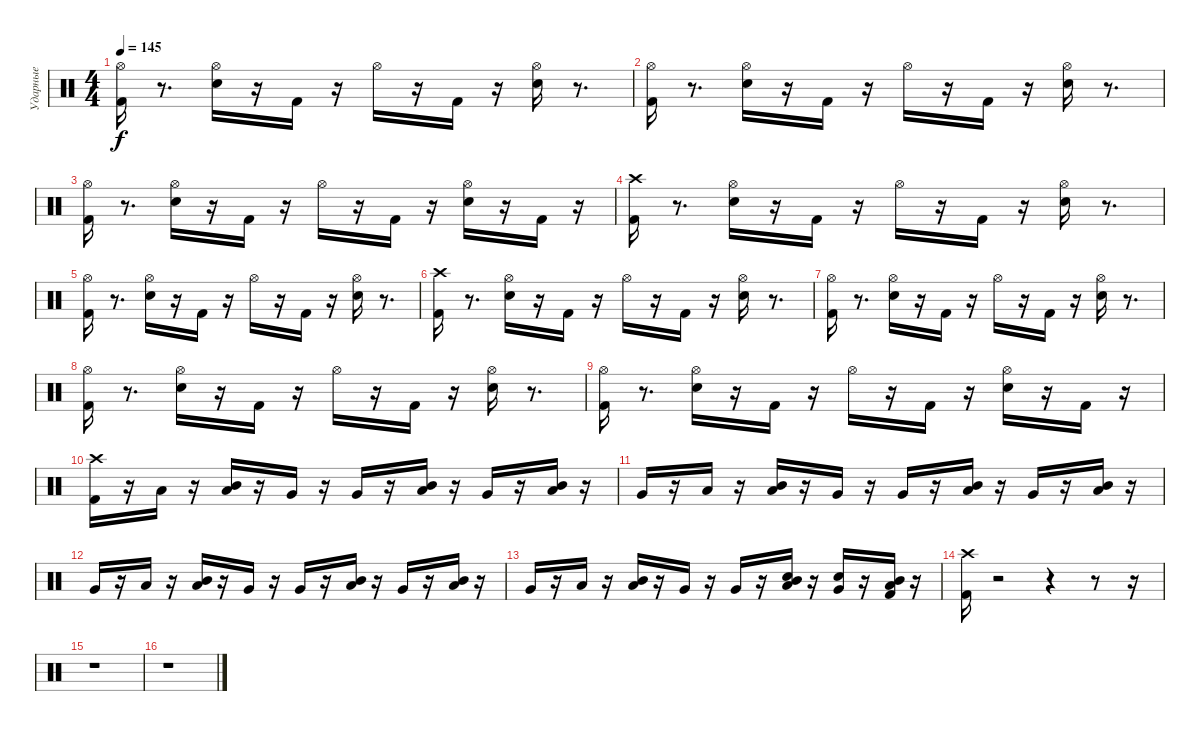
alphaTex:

\track ("Ударные" "Ударные") {instrument percussion}
\staff {score}
\articulation defaults
\ts (4 4)
\tempo 145
\clef neutral
\ks c
("Hi-Hat (open)" "Kick (hit) 2").16{dy f} r.8{d} ("Electric Snare (hit)" "Hi-Hat (open)").16 r.16 "Kick (hit) 2".16 r.16 "Hi-Hat (open)".16 r.16 "Kick (hit) 2".16 r.16 ("Electric Snare (hit)" "Hi-Hat (open)").16 r.8{d} |
("Hi-Hat (open)" "Kick (hit) 2").16 r.8{d} ("Electric Snare (hit)" "Hi-Hat (open)").16 r.16 "Kick (hit) 2".16 r.16 "Hi-Hat (open)".16 r.16 "Kick (hit) 2".16 r.16 ("Electric Snare (hit)" "Hi-Hat (open)").16 r.8{d} |
("Kick (hit) 2" "Hi-Hat (open)").16 r.8{d} ("Electric Snare (hit)" "Hi-Hat (open)").16 r.16 "Kick (hit) 2".16 r.16 "Hi-Hat (open)".16 r.16 "Kick (hit) 2".16 r.16 ("Hi-Hat (open)" "Electric Snare (hit)").16 r.16 "Kick (hit) 2".16 r.16 |
("Crash high (hit)" "Kick (hit) 2").16 r.8{d} ("Electric Snare (hit)" "Hi-Hat (open)").16 r.16 "Kick (hit) 2".16 r.16 "Hi-Hat (open)".16 r.16 "Kick (hit) 2".16 r.16 ("Hi-Hat (open)" "Electric Snare (hit)").16 r.8{d} |
("Kick (hit) 2" "Hi-Hat (open)").16 r.8{d} ("Hi-Hat (open)" "Electric Snare (hit)").16 r.16 "Kick (hit) 2".16 r.16 "Hi-Hat (open)".16 r.16 "Kick (hit) 2".16 r.16 ("Electric Snare (hit)" "Hi-Hat (open)").16 r.8{d} |
("Kick (hit) 2" "Crash high (hit)").16 r.8{d} ("Electric Snare (hit)" "Hi-Hat (open)").16 r.16 "Kick (hit) 2".16 r.16 "Hi-Hat (open)".16 r.16 "Kick (hit) 2".16 r.16 ("Hi-Hat (open)" "Electric Snare (hit)").16 r.8{d} |
("Hi-Hat (open)" "Kick (hit) 2").16 r.8{d} ("Electric Snare (hit)" "Hi-Hat (open)").16 r.16 "Kick (hit) 2".16 r.16 "Hi-Hat (open)".16 r.16 "Kick (hit) 2".16 r.16 ("Hi-Hat (open)" "Electric Snare (hit)").16 r.8{d} |
("Hi-Hat (open)" "Kick (hit) 2").16 r.8{d} ("Electric Snare (hit)" "Hi-Hat (open)").16 r.16 "Kick (hit) 2".16 r.16 "Hi-Hat (open)".16 r.16 "Kick (hit) 2".16 r.16 ("Hi-Hat (open)" "Electric Snare (hit)").16 r.8{d} |
("Hi-Hat (open)" "Kick (hit) 2").16 r.8{d} ("Electric Snare (hit)" "Hi-Hat (open)").16 r.16 "Kick (hit) 2".16 r.16 "Hi-Hat (open)".16 r.16 "Kick (hit) 2".16 r.16 ("Hi-Hat (open)" "Electric Snare (hit)").16 r.16 "Kick (hit) 2".16 r.16 |
("Crash high (hit)" "Kick (hit) 2").16 r.16 "Low Tom (hit)".16 r.16 ("Low Tom (hit)" "Mid Tom (hit)").16 r.16 "Very Low Tom (hit)".16 r.16 "Very Low Tom (hit)".16 r.16 ("Low Tom (hit)" "Mid Tom (hit)").16 r.16 "Very Low Tom (hit)".16 r.16 ("Low Tom (hit)" "Mid Tom (hit)").16 r.16 |
"Very Low Tom (hit)".16 r.16 "Low Tom (hit)".16 r.16 ("Low Tom (hit)" "Mid Tom (hit)").16 r.16 "Very Low Tom (hit)".16 r.16 "Very Low Tom (hit)".16 r.16 ("Low Tom (hit)" "Mid Tom (hit)").16 r.16 "Very Low Tom (hit)".16 r.16 ("Low Tom (hit)" "Mid Tom (hit)").16 r.16 |
"Very Low Tom (hit)".16 r.16 "Low Tom (hit)".16 r.16 ("Low Tom (hit)" "Mid Tom (hit)").16 r.16 "Very Low Tom (hit)".16 r.16 "Very Low Tom (hit)".16 r.16 ("Low Tom (hit)" "Mid Tom (hit)").16 r.16 "Very Low Tom (hit)".16 r.16 ("Low Tom (hit)" "Mid Tom (hit)").16 r.16 |
"Very Low Tom (hit)".16 r.16 "Low Tom (hit)".16 r.16 ("Low Tom (hit)" "Mid Tom (hit)").16 r.16 "Very Low Tom (hit)".16 r.16 "Very Low Tom (hit)".16 r.16 ("Electric Snare (hit)" "Low Tom (hit)" "Mid Tom (hit)").16 r.16 ("Very Low Tom (hit)" "Electric Snare (hit)").16 r.16 ("Kick (hit) 2" "Low Tom (hit)" "Mid Tom (hit)").16 r.16 |
("Kick (hit) 2" "Crash high (hit)").16 r.2 r.4 r.8 r.16 |
r.1 |
r.1
